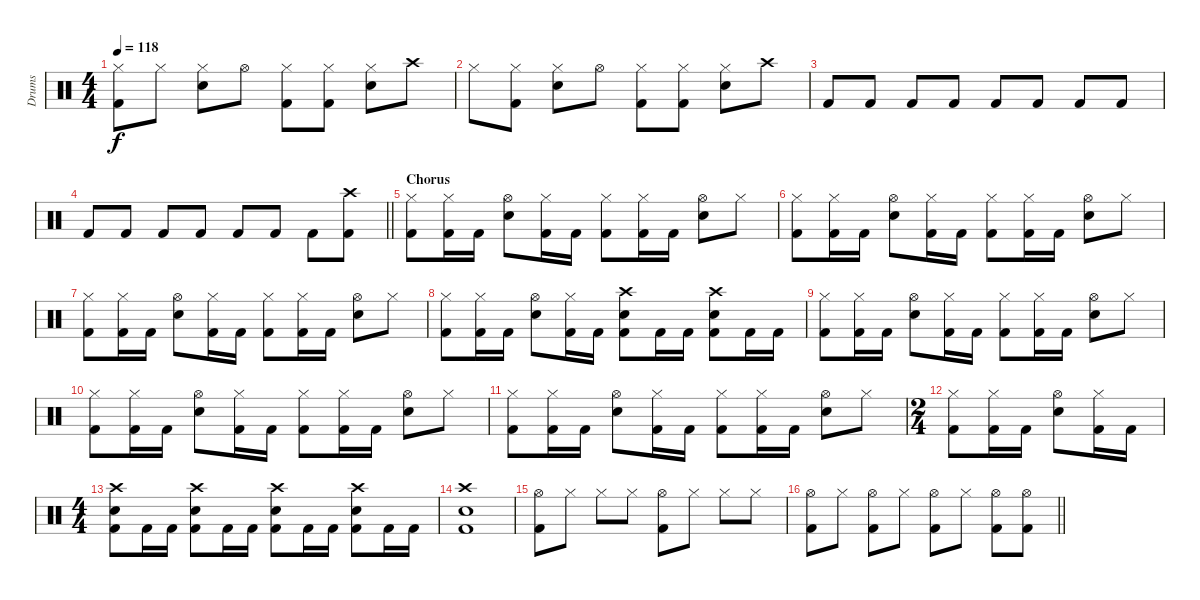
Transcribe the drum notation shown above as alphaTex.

\track ("Drums" "Drums") {solo instrument percussion}
\staff {score}
\articulation defaults
\ts (4 4)
\tempo 118
\clef neutral
\ks c
("Hi-Hat (closed)" "Kick (hit) 2").8{dy f} "Hi-Hat (closed)".8 ("Hi-Hat (closed)" "Snare (hit) 2").8 "Hi-Hat (open)".8 ("Hi-Hat (closed)" "Kick (hit) 2").8 ("Hi-Hat (closed)" "Kick (hit) 2").8 ("Hi-Hat (closed)" "Snare (hit) 2").8 "Crash high (hit)".8 |
"Hi-Hat (closed)".8 ("Hi-Hat (closed)" "Kick (hit) 2").8 ("Hi-Hat (closed)" "Snare (hit) 2").8 "Hi-Hat (open)".8 ("Hi-Hat (closed)" "Kick (hit) 2").8 ("Hi-Hat (closed)" "Kick (hit) 2").8 ("Hi-Hat (closed)" "Snare (hit) 2").8 "Crash high (hit)".8 |
"Kick (hit) 2".8 "Kick (hit) 2".8 "Kick (hit) 2".8 "Kick (hit) 2".8 "Kick (hit) 2".8 "Kick (hit) 2".8 "Kick (hit) 2".8 "Kick (hit) 2".8 |
\barLineRight lightlight "Kick (hit) 2".8 "Kick (hit) 2".8 "Kick (hit) 2".8 "Kick (hit) 2".8 "Kick (hit) 2".8 "Kick (hit) 2".8 "Kick (hit) 2".8
("Crash high (hit)" "Kick (hit) 2").8 |
\section ("" "Chorus")
("Hi-Hat (closed)" "Kick (hit) 2").8 ("Hi-Hat (closed)" "Kick (hit) 2").16 "Kick (hit) 2".16 ("Hi-Hat (open)" "Snare (hit) 2").8 ("Hi-Hat (closed)" "Kick (hit) 2").16 "Kick (hit) 2".16 ("Hi-Hat (closed)" "Kick (hit) 2").8 ("Hi-Hat (closed)" "Kick (hit) 2").16 "Kick (hit) 2".16 ("Hi-Hat (open)" "Snare (hit) 2").8 "Hi-Hat (closed)".8 |
("Hi-Hat (closed)" "Kick (hit) 2").8 ("Hi-Hat (closed)" "Kick (hit) 2").16 "Kick (hit) 2".16 ("Hi-Hat (open)" "Snare (hit) 2").8 ("Hi-Hat (closed)" "Kick (hit) 2").16 "Kick (hit) 2".16 ("Hi-Hat (closed)" "Kick (hit) 2").8 ("Hi-Hat (closed)" "Kick (hit) 2").16 "Kick (hit) 2".16 ("Hi-Hat (open)" "Snare (hit) 2").8 "Hi-Hat (closed)".8 |
("Hi-Hat (closed)" "Kick (hit) 2").8 ("Hi-Hat (closed)" "Kick (hit) 2").16 "Kick (hit) 2".16 ("Hi-Hat (open)" "Snare (hit) 2").8 ("Hi-Hat (closed)" "Kick (hit) 2").16 "Kick (hit) 2".16 ("Hi-Hat (closed)" "Kick (hit) 2").8 ("Hi-Hat (closed)" "Kick (hit) 2").16 "Kick (hit) 2".16 ("Hi-Hat (open)" "Snare (hit) 2").8 "Hi-Hat (closed)".8 |
("Hi-Hat (closed)" "Kick (hit) 2").8 ("Hi-Hat (closed)" "Kick (hit) 2").16 "Kick (hit) 2".16 ("Hi-Hat (open)" "Snare (hit) 2").8 ("Hi-Hat (closed)" "Kick (hit) 2").16 "Kick (hit) 2".16 ("Crash high (hit)" "Kick (hit) 2" "Snare (hit) 2").8 "Kick (hit) 2".16 "Kick (hit) 2".16 ("Crash high (hit)" "Kick (hit) 2" "Snare (hit) 2").8 "Kick (hit) 2".16 "Kick (hit) 2".16 |
("Hi-Hat (closed)" "Kick (hit) 2").8 ("Hi-Hat (closed)" "Kick (hit) 2").16 "Kick (hit) 2".16 ("Hi-Hat (open)" "Snare (hit) 2").8 ("Hi-Hat (closed)" "Kick (hit) 2").16 "Kick (hit) 2".16 ("Hi-Hat (closed)" "Kick (hit) 2").8 ("Hi-Hat (closed)" "Kick (hit) 2").16 "Kick (hit) 2".16 ("Hi-Hat (open)" "Snare (hit) 2").8 "Hi-Hat (closed)".8 |
("Hi-Hat (closed)" "Kick (hit) 2").8 ("Hi-Hat (closed)" "Kick (hit) 2").16 "Kick (hit) 2".16 ("Hi-Hat (open)" "Snare (hit) 2").8 ("Hi-Hat (closed)" "Kick (hit) 2").16 "Kick (hit) 2".16 ("Hi-Hat (closed)" "Kick (hit) 2").8 ("Hi-Hat (closed)" "Kick (hit) 2").16 "Kick (hit) 2".16 ("Hi-Hat (open)" "Snare (hit) 2").8 "Hi-Hat (closed)".8 |
("Hi-Hat (closed)" "Kick (hit) 2").8 ("Hi-Hat (closed)" "Kick (hit) 2").16 "Kick (hit) 2".16 ("Hi-Hat (open)" "Snare (hit) 2").8 ("Hi-Hat (closed)" "Kick (hit) 2").16 "Kick (hit) 2".16 ("Hi-Hat (closed)" "Kick (hit) 2").8 ("Hi-Hat (closed)" "Kick (hit) 2").16 "Kick (hit) 2".16 ("Hi-Hat (open)" "Snare (hit) 2").8 "Hi-Hat (closed)".8 |
\ts (2 4)
("Hi-Hat (closed)" "Kick (hit) 2").8 ("Hi-Hat (closed)" "Kick (hit) 2").16 "Kick (hit) 2".16 ("Hi-Hat (open)" "Snare (hit) 2").8 ("Hi-Hat (closed)" "Kick (hit) 2").16 "Kick (hit) 2".16 |
\ts (4 4)
("Crash high (hit)" "Kick (hit) 2" "Snare (hit) 2").8 "Kick (hit) 2".16 "Kick (hit) 2".16 ("Crash high (hit)" "Kick (hit) 2" "Snare (hit) 2").8 "Kick (hit) 2".16 "Kick (hit) 2".16 ("Crash high (hit)" "Kick (hit) 2" "Snare (hit) 2").8 "Kick (hit) 2".16 "Kick (hit) 2".16 ("Crash high (hit)" "Kick (hit) 2" "Snare (hit) 2").8 "Kick (hit) 2".16 "Kick (hit) 2".16 |
("Crash high (hit)" "Kick (hit) 2" "Snare (hit) 2").1 |
("Hi-Hat (open)" "Kick (hit) 2").8 "Hi-Hat (closed)".8 "Hi-Hat (closed)".8 "Hi-Hat (closed)".8 ("Hi-Hat (open)" "Kick (hit) 2").8 "Hi-Hat (closed)".8 "Hi-Hat (closed)".8 "Hi-Hat (closed)".8 |
\barLineRight lightlight
("Hi-Hat (open)" "Kick (hit) 2").8 "Hi-Hat (closed)".8 ("Hi-Hat (open)" "Kick (hit) 2").8 "Hi-Hat (closed)".8 ("Hi-Hat (open)" "Kick (hit) 2").8 "Hi-Hat (closed)".8 ("Hi-Hat (open)" "Kick (hit) 2").8 ("Hi-Hat (open)" "Kick (hit) 2").8
